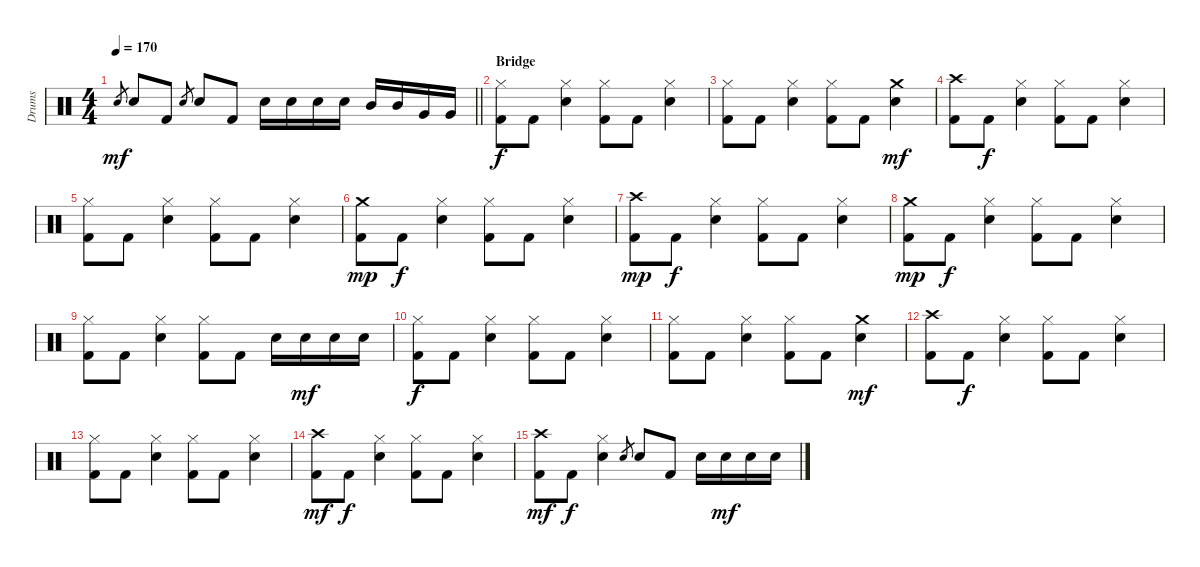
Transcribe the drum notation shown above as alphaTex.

\track ("Drums" "Drums") {instrument percussion}
\staff {score}
\articulation defaults
\ts (4 4)
\tempo 170
\clef neutral
\barLineRight lightlight
\ks c "Electric Snare (hit)".8{gr dy mf} "Electric Snare (hit)".8 "Kick (hit) 2".8 "Electric Snare (hit)".8{gr} "Electric Snare (hit)".8 "Kick (hit) 2".8 "Electric Snare (hit)".16 "Electric Snare (hit)".16 "Electric Snare (hit)".16 "Electric Snare (hit)".16 "Mid Tom (hit)".16 "Mid Tom (hit)".16 "Very Low Tom (hit)".16 "Very Low Tom (hit)".16
|
\section ("" "Bridge")
("Hi-Hat (closed)" "Kick (hit) 2").8{dy f} "Kick (hit) 2".8 ("Hi-Hat (closed)" "Electric Snare (hit)").4 ("Hi-Hat (closed)" "Kick (hit) 2").8 "Kick (hit) 2".8 ("Hi-Hat (closed)" "Electric Snare (hit)").4 |
("Hi-Hat (closed)" "Kick (hit) 2").8 "Kick (hit) 2".8 ("Hi-Hat (closed)" "Electric Snare (hit)").4 ("Hi-Hat (closed)" "Kick (hit) 2").8 "Kick (hit) 2".8 ("Crash medium (hit)" "Electric Snare (hit)").4{dy mf} |
("Crash high (hit)" "Kick (hit) 2").8 "Kick (hit) 2".8{dy f} ("Hi-Hat (closed)" "Electric Snare (hit)").4 ("Hi-Hat (closed)" "Kick (hit) 2").8 "Kick (hit) 2".8 ("Hi-Hat (closed)" "Electric Snare (hit)").4 |
("Hi-Hat (closed)" "Kick (hit) 2").8 "Kick (hit) 2".8 ("Hi-Hat (closed)" "Electric Snare (hit)").4 ("Hi-Hat (closed)" "Kick (hit) 2").8 "Kick (hit) 2".8 ("Hi-Hat (closed)" "Electric Snare (hit)").4 |
("Crash medium (hit)" "Kick (hit) 2").8{dy mp} "Kick (hit) 2".8{dy f} ("Hi-Hat (closed)" "Electric Snare (hit)").4 ("Hi-Hat (closed)" "Kick (hit) 2").8 "Kick (hit) 2".8 ("Hi-Hat (closed)" "Electric Snare (hit)").4 |
("Crash high (hit)" "Kick (hit) 2").8{dy mp} "Kick (hit) 2".8{dy f} ("Hi-Hat (closed)" "Electric Snare (hit)").4 ("Hi-Hat (closed)" "Kick (hit) 2").8 "Kick (hit) 2".8 ("Hi-Hat (closed)" "Electric Snare (hit)").4 |
("Crash medium (hit)" "Kick (hit) 2").8{dy mp} "Kick (hit) 2".8{dy f} ("Hi-Hat (closed)" "Electric Snare (hit)").4 ("Hi-Hat (closed)" "Kick (hit) 2").8 "Kick (hit) 2".8 ("Hi-Hat (closed)" "Electric Snare (hit)").4 |
("Hi-Hat (closed)" "Kick (hit) 2").8 "Kick (hit) 2".8 ("Hi-Hat (closed)" "Electric Snare (hit)").4 ("Hi-Hat (closed)" "Kick (hit) 2").8 "Kick (hit) 2".8 "Electric Snare (hit)".16 "Electric Snare (hit)".16{dy mf} "Electric Snare (hit)".16 "Electric Snare (hit)".16 |
("Hi-Hat (closed)" "Kick (hit) 2").8{dy f} "Kick (hit) 2".8 ("Hi-Hat (closed)" "Electric Snare (hit)").4 ("Hi-Hat (closed)" "Kick (hit) 2").8 "Kick (hit) 2".8 ("Hi-Hat (closed)" "Electric Snare (hit)").4 |
("Hi-Hat (closed)" "Kick (hit) 2").8 "Kick (hit) 2".8 ("Hi-Hat (closed)" "Electric Snare (hit)").4 ("Hi-Hat (closed)" "Kick (hit) 2").8 "Kick (hit) 2".8 ("Crash medium (hit)" "Electric Snare (hit)").4{dy mf} |
("Crash high (hit)" "Kick (hit) 2").8 "Kick (hit) 2".8{dy f} ("Hi-Hat (closed)" "Electric Snare (hit)").4 ("Hi-Hat (closed)" "Kick (hit) 2").8 "Kick (hit) 2".8 ("Hi-Hat (closed)" "Electric Snare (hit)").4 |
("Hi-Hat (closed)" "Kick (hit) 2").8 "Kick (hit) 2".8 ("Hi-Hat (closed)" "Electric Snare (hit)").4 ("Hi-Hat (closed)" "Kick (hit) 2").8 "Kick (hit) 2".8 ("Hi-Hat (closed)" "Electric Snare (hit)").4 |
("Crash high (hit)" "Kick (hit) 2").8{dy mf} "Kick (hit) 2".8{dy f} ("Hi-Hat (closed)" "Electric Snare (hit)").4 ("Hi-Hat (closed)" "Kick (hit) 2").8 "Kick (hit) 2".8 ("Hi-Hat (closed)" "Electric Snare (hit)").4 |
("Crash high (hit)" "Kick (hit) 2").8{dy mf} "Kick (hit) 2".8{dy f} ("Hi-Hat (closed)" "Electric Snare (hit)").4 "Electric Snare (hit)".8{gr} "Electric Snare (hit)".8 "Kick (hit) 2".8 "Electric Snare (hit)".16 "Electric Snare (hit)".16{dy mf} "Electric Snare (hit)".16 "Electric Snare (hit)".16
